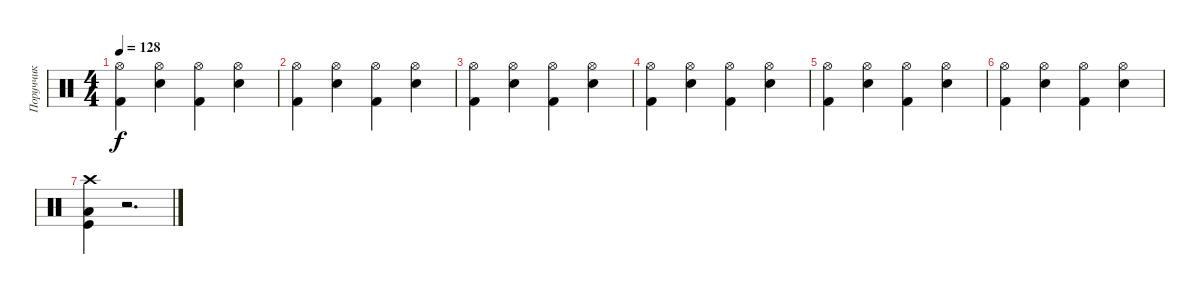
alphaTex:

\track ("Поруччик" "Поруччик") {instrument percussion}
\staff {score}
\articulation defaults
\ts (4 4)
\tempo 128
\clef neutral
\ks c
("Hi-Hat (open)" "Kick (hit) 2").4{dy f} ("Hi-Hat (open)" "Electric Snare (hit)").4 ("Hi-Hat (open)" "Kick (hit) 2").4 ("Hi-Hat (open)" "Electric Snare (hit)").4 |
("Hi-Hat (open)" "Kick (hit) 2").4 ("Hi-Hat (open)" "Electric Snare (hit)").4 ("Hi-Hat (open)" "Kick (hit) 2").4 ("Hi-Hat (open)" "Electric Snare (hit)").4 |
("Hi-Hat (open)" "Kick (hit) 2").4 ("Hi-Hat (open)" "Electric Snare (hit)").4 ("Hi-Hat (open)" "Kick (hit) 2").4 ("Hi-Hat (open)" "Electric Snare (hit)").4 |
("Hi-Hat (open)" "Kick (hit) 2").4 ("Hi-Hat (open)" "Electric Snare (hit)").4 ("Hi-Hat (open)" "Kick (hit) 2").4 ("Hi-Hat (open)" "Electric Snare (hit)").4 |
("Hi-Hat (open)" "Kick (hit) 2").4 ("Hi-Hat (open)" "Electric Snare (hit)").4 ("Hi-Hat (open)" "Kick (hit) 2").4 ("Hi-Hat (open)" "Electric Snare (hit)").4 |
("Hi-Hat (open)" "Kick (hit) 2").4 ("Hi-Hat (open)" "Electric Snare (hit)").4 ("Hi-Hat (open)" "Kick (hit) 2").4 ("Hi-Hat (open)" "Electric Snare (hit)").4 |
("Crash high (hit)" "Low Tom (hit)" "Kick (hit)").4 r.2{d}
